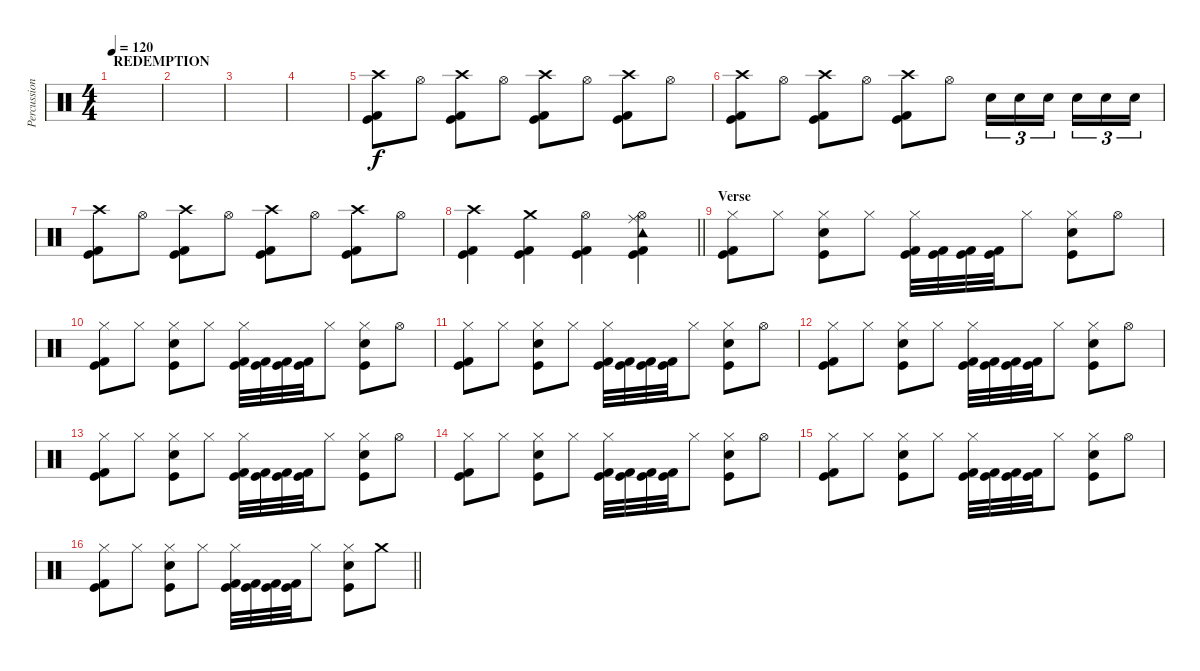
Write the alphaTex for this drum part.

\track ("Percussion" "Percussion") {instrument percussion}
\staff {score}
\articulation defaults
\ts (4 4)
\section ("" "REDEMPTION")
\tempo 120
\clef neutral
\ks c
|
|
|
|
("Crash high (hit)" "Kick (hit) 2" "Kick (hit)").8 "Hi-Hat (open)".8 ("Crash high (hit)" "Kick (hit) 2" "Kick (hit)").8 "Hi-Hat (open)".8 ("Crash high (hit)" "Kick (hit) 2" "Kick (hit)").8 "Hi-Hat (open)".8 ("Crash high (hit)" "Kick (hit) 2" "Kick (hit)").8 "Hi-Hat (open)".8 |
("Crash high (hit)" "Kick (hit) 2" "Kick (hit)").8 "Hi-Hat (open)".8 ("Crash high (hit)" "Kick (hit) 2" "Kick (hit)").8 "Hi-Hat (open)".8 ("Crash high (hit)" "Kick (hit) 2" "Kick (hit)").8 "Hi-Hat (open)".8 "Electric Snare (hit)".16{tu (3 2)} "Electric Snare (hit)".16{tu (3 2)} "Electric Snare (hit)".16{tu (3 2) beam splitsecondary} "Electric Snare (hit)".16{tu (3 2)} "Electric Snare (hit)".16{tu (3 2)} "Electric Snare (hit)".16{tu (3 2)} |
("Crash high (hit)" "Kick (hit) 2" "Kick (hit)").8 "Hi-Hat (open)".8 ("Crash high (hit)" "Kick (hit) 2" "Kick (hit)").8 "Hi-Hat (open)".8 ("Crash high (hit)" "Kick (hit) 2" "Kick (hit)").8 "Hi-Hat (open)".8 ("Crash high (hit)" "Kick (hit) 2" "Kick (hit)").8 "Hi-Hat (open)".8 |
\barLineRight lightlight
("Crash high (hit)" "Kick (hit)" "Kick (hit) 2").4 ("Crash medium (hit)" "Kick (hit)" "Kick (hit) 2").4 ("Hi-Hat (open)" "Kick (hit)" "Kick (hit) 2").4 ("Tambourine (hit)" "Hi-Hat (open)" "Ride (middle)" "Kick (hit)" "Kick (hit) 2").4 |
\section ("" "Verse")
("Hi-Hat (closed)" "Kick (hit) 2" "Kick (hit)").8 "Hi-Hat (closed)".8 ("Hi-Hat (closed)" "Electric Snare (hit)" "Kick (hit)").8 "Hi-Hat (closed)".8 ("Hi-Hat (closed)" "Kick (hit) 2" "Kick (hit)").32 ("Kick (hit) 2" "Kick (hit)").32 ("Kick (hit) 2" "Kick (hit)").32 ("Kick (hit) 2" "Kick (hit)").32 "Hi-Hat (closed)".8 ("Hi-Hat (closed)" "Electric Snare (hit)" "Kick (hit)").8 "Hi-Hat (open)".8 |
("Hi-Hat (closed)" "Kick (hit) 2" "Kick (hit)").8 "Hi-Hat (closed)".8 ("Hi-Hat (closed)" "Electric Snare (hit)" "Kick (hit)").8 "Hi-Hat (closed)".8 ("Hi-Hat (closed)" "Kick (hit) 2" "Kick (hit)").32 ("Kick (hit) 2" "Kick (hit)").32 ("Kick (hit) 2" "Kick (hit)").32 ("Kick (hit) 2" "Kick (hit)").32 "Hi-Hat (closed)".8 ("Hi-Hat (closed)" "Electric Snare (hit)" "Kick (hit)").8 "Hi-Hat (open)".8 |
("Hi-Hat (closed)" "Kick (hit) 2" "Kick (hit)").8 "Hi-Hat (closed)".8 ("Hi-Hat (closed)" "Electric Snare (hit)" "Kick (hit)").8 "Hi-Hat (closed)".8 ("Hi-Hat (closed)" "Kick (hit) 2" "Kick (hit)").32 ("Kick (hit) 2" "Kick (hit)").32 ("Kick (hit) 2" "Kick (hit)").32 ("Kick (hit) 2" "Kick (hit)").32 "Hi-Hat (closed)".8 ("Hi-Hat (closed)" "Electric Snare (hit)" "Kick (hit)").8 "Hi-Hat (open)".8 |
("Hi-Hat (closed)" "Kick (hit) 2" "Kick (hit)").8 "Hi-Hat (closed)".8 ("Hi-Hat (closed)" "Electric Snare (hit)" "Kick (hit)").8 "Hi-Hat (closed)".8 ("Hi-Hat (closed)" "Kick (hit) 2" "Kick (hit)").32 ("Kick (hit) 2" "Kick (hit)").32 ("Kick (hit) 2" "Kick (hit)").32 ("Kick (hit) 2" "Kick (hit)").32 "Hi-Hat (closed)".8 ("Hi-Hat (closed)" "Electric Snare (hit)" "Kick (hit)").8 "Hi-Hat (open)".8 |
("Hi-Hat (closed)" "Kick (hit) 2" "Kick (hit)").8 "Hi-Hat (closed)".8 ("Hi-Hat (closed)" "Electric Snare (hit)" "Kick (hit)").8 "Hi-Hat (closed)".8 ("Hi-Hat (closed)" "Kick (hit) 2" "Kick (hit)").32 ("Kick (hit) 2" "Kick (hit)").32 ("Kick (hit) 2" "Kick (hit)").32 ("Kick (hit) 2" "Kick (hit)").32 "Hi-Hat (closed)".8 ("Hi-Hat (closed)" "Electric Snare (hit)" "Kick (hit)").8 "Hi-Hat (open)".8 |
("Hi-Hat (closed)" "Kick (hit) 2" "Kick (hit)").8 "Hi-Hat (closed)".8 ("Hi-Hat (closed)" "Electric Snare (hit)" "Kick (hit)").8 "Hi-Hat (closed)".8 ("Hi-Hat (closed)" "Kick (hit) 2" "Kick (hit)").32 ("Kick (hit) 2" "Kick (hit)").32 ("Kick (hit) 2" "Kick (hit)").32 ("Kick (hit) 2" "Kick (hit)").32 "Hi-Hat (closed)".8 ("Hi-Hat (closed)" "Electric Snare (hit)" "Kick (hit)").8 "Hi-Hat (open)".8 |
("Hi-Hat (closed)" "Kick (hit) 2" "Kick (hit)").8 "Hi-Hat (closed)".8 ("Hi-Hat (closed)" "Electric Snare (hit)" "Kick (hit)").8 "Hi-Hat (closed)".8 ("Hi-Hat (closed)" "Kick (hit) 2" "Kick (hit)").32 ("Kick (hit) 2" "Kick (hit)").32 ("Kick (hit) 2" "Kick (hit)").32 ("Kick (hit) 2" "Kick (hit)").32 "Hi-Hat (closed)".8 ("Hi-Hat (closed)" "Electric Snare (hit)" "Kick (hit)").8 "Hi-Hat (open)".8 |
\barLineRight lightlight
("Hi-Hat (closed)" "Kick (hit) 2" "Kick (hit)").8 "Hi-Hat (closed)".8 ("Hi-Hat (closed)" "Electric Snare (hit)" "Kick (hit)").8 "Hi-Hat (closed)".8 ("Hi-Hat (closed)" "Kick (hit) 2" "Kick (hit)").32 ("Kick (hit) 2" "Kick (hit)").32 ("Kick (hit) 2" "Kick (hit)").32 ("Kick (hit) 2" "Kick (hit)").32 "Hi-Hat (closed)".8 ("Hi-Hat (closed)" "Electric Snare (hit)" "Kick (hit)").8 "Crash medium (hit)".8
